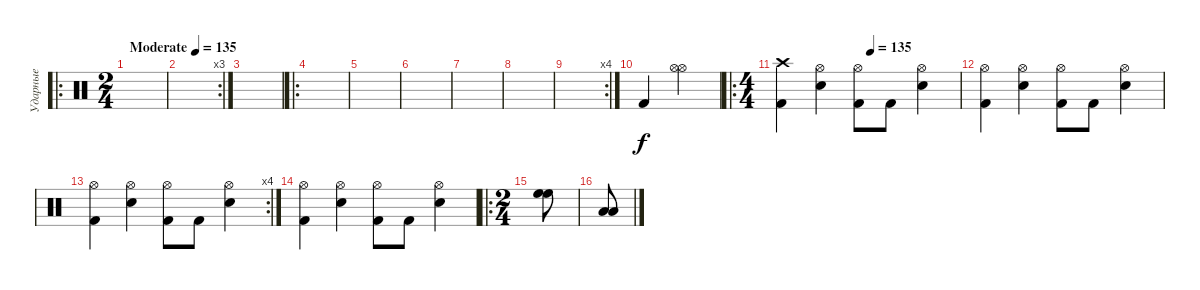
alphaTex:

\track ("Ударные" "Ударные") {instrument percussion}
\staff {score}
\articulation defaults
\ro
\ts (2 4)
\tempo (135 "Moderate")
\clef neutral
\ks c
|
\rc 3
|
|
\ro
|
|
|
|
|
\rc 4
|
"Kick (hit) 2".4 ("Hi-Hat (open)" "Hi-Hat (open)").4 |
\ro
\ts (4 4)
\tempo (135 0.5)
("Crash high (hit)" "Kick (hit) 2").4 ("Hi-Hat (open)" "Snare (hit) 2").4 ("Hi-Hat (open)" "Kick (hit) 2").8 "Kick (hit) 2".8 ("Hi-Hat (open)" "Snare (hit) 2").4 |
("Hi-Hat (open)" "Kick (hit) 2").4 ("Hi-Hat (open)" "Snare (hit) 2").4 ("Hi-Hat (open)" "Kick (hit) 2").8 "Kick (hit) 2".8 ("Hi-Hat (open)" "Snare (hit) 2").4 |
\rc 4
("Hi-Hat (open)" "Kick (hit) 2").4 ("Hi-Hat (open)" "Snare (hit) 2").4 ("Hi-Hat (open)" "Kick (hit) 2").8 "Kick (hit) 2".8 ("Hi-Hat (open)" "Snare (hit) 2").4 |
("Hi-Hat (open)" "Kick (hit) 2").4 ("Hi-Hat (open)" "Snare (hit) 2").4 ("Hi-Hat (open)" "Kick (hit) 2").8 "Kick (hit) 2".8 ("Hi-Hat (open)" "Snare (hit) 2").4 |
\ro
\ts (2 4)
("High Floor Tom (hit)" "High Floor Tom (hit)").8 |
("Low Tom (hit)" "Low Tom (hit)").8
